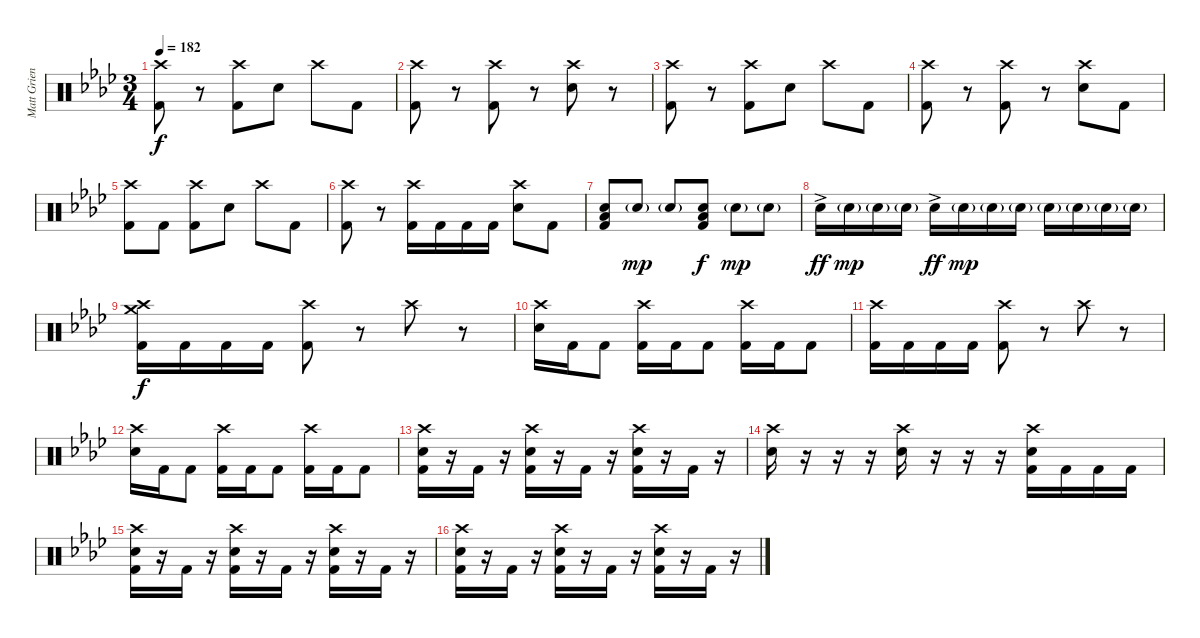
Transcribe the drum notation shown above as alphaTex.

\track ("Matt Griener [Drum Kit]" "Matt Grien") {instrument percussion}
\staff {score}
\articulation defaults
\ts (3 4)
\tempo 182
\clef neutral
\ks fminor
("Crash high (hit)" "Kick (hit) 2").8{dy f} r.8 ("Crash high (hit)" "Kick (hit) 2").8 "Electric Snare (hit)".8 "Crash high (hit)".8 "Kick (hit) 2".8 |
("Crash high (hit)" "Kick (hit) 2").8 r.8 ("Crash high (hit)" "Kick (hit) 2").8 r.8 ("Crash high (hit)" "Electric Snare (hit)").8 r.8 |
("Crash high (hit)" "Kick (hit) 2").8 r.8 ("Crash high (hit)" "Kick (hit) 2").8 "Electric Snare (hit)".8 "Crash high (hit)".8 "Kick (hit) 2".8 |
("Crash high (hit)" "Kick (hit) 2").8 r.8 ("Crash high (hit)" "Kick (hit) 2").8 r.8 ("Crash high (hit)" "Electric Snare (hit)").8 "Kick (hit) 2".8 |
("Crash high (hit)" "Kick (hit) 2").8 "Kick (hit) 2".8 ("Crash high (hit)" "Kick (hit) 2").8 "Electric Snare (hit)".8 "Crash high (hit)".8 "Kick (hit) 2".8 |
("Crash high (hit)" "Kick (hit) 2").8 r.8 ("Crash high (hit)" "Kick (hit) 2").16 "Kick (hit) 2".16 "Kick (hit) 2".16 "Kick (hit) 2".16 ("Crash high (hit)" "Electric Snare (hit)").8 "Kick (hit) 2".8 |
("Electric Snare (hit)" "Low Floor Tom (hit)" "Kick (hit) 2").8 "Electric Snare (hit)"{g}.8{dy mp} "Electric Snare (hit)"{g}.8 ("Electric Snare (hit)" "Low Floor Tom (hit)" "Kick (hit) 2").8{dy f} "Electric Snare (hit)"{g}.8{dy mp} "Electric Snare (hit)"{g}.8 |
"Electric Snare (hit)"{ac}.16{dy ff} "Electric Snare (hit)"{g}.16{dy mp} "Electric Snare (hit)"{g}.16 "Electric Snare (hit)"{g}.16 "Electric Snare (hit)"{ac}.16{dy ff} "Electric Snare (hit)"{g}.16{dy mp} "Electric Snare (hit)"{g}.16 "Electric Snare (hit)"{g}.16 "Electric Snare (hit)"{g}.16 "Electric Snare (hit)"{g}.16 "Electric Snare (hit)"{g}.16 "Electric Snare (hit)"{g}.16 |
("Crash high (hit)" "Crash medium (hit)" "Kick (hit) 2").16{dy f} "Kick (hit) 2".16 "Kick (hit) 2".16 "Kick (hit) 2".16 ("Crash high (hit)" "Kick (hit) 2").8 r.8 "Crash high (hit)".8 r.8 |
("Crash high (hit)" "Electric Snare (hit)").16 "Kick (hit) 2".16 "Kick (hit) 2".8 ("Crash high (hit)" "Kick (hit) 2").16 "Kick (hit) 2".16 "Kick (hit) 2".8 ("Crash high (hit)" "Kick (hit) 2").16 "Kick (hit) 2".16 "Kick (hit) 2".8 |
("Crash high (hit)" "Kick (hit) 2").16 "Kick (hit) 2".16 "Kick (hit) 2".16 "Kick (hit) 2".16 ("Crash high (hit)" "Kick (hit) 2").8 r.8 "Crash high (hit)".8 r.8 |
("Crash high (hit)" "Electric Snare (hit)").16 "Kick (hit) 2".16 "Kick (hit) 2".8 ("Crash high (hit)" "Kick (hit) 2").16 "Kick (hit) 2".16 "Kick (hit) 2".8 ("Crash high (hit)" "Kick (hit) 2").16 "Kick (hit) 2".16 "Kick (hit) 2".8 |
("Crash high (hit)" "Electric Snare (hit)" "Kick (hit) 2").16 r.16 "Kick (hit) 2".16 r.16 ("Crash high (hit)" "Electric Snare (hit)" "Kick (hit) 2").16 r.16 "Kick (hit) 2".16 r.16 ("Crash high (hit)" "Electric Snare (hit)" "Kick (hit) 2").16 r.16 "Kick (hit) 2".16 r.16 |
("Crash high (hit)" "Electric Snare (hit)").16 r.16 r.16 r.16 ("Crash high (hit)" "Electric Snare (hit)").16 r.16 r.16 r.16 ("Crash high (hit)" "Electric Snare (hit)" "Kick (hit) 2").16 "Kick (hit) 2".16 "Kick (hit) 2".16 "Kick (hit) 2".16 |
("Crash high (hit)" "Electric Snare (hit)" "Kick (hit) 2").16 r.16 "Kick (hit) 2".16 r.16 ("Crash high (hit)" "Electric Snare (hit)" "Kick (hit) 2").16 r.16 "Kick (hit) 2".16 r.16 ("Crash high (hit)" "Electric Snare (hit)" "Kick (hit) 2").16 r.16 "Kick (hit) 2".16 r.16 |
("Crash high (hit)" "Electric Snare (hit)" "Kick (hit) 2").16 r.16 "Kick (hit) 2".16 r.16 ("Crash high (hit)" "Electric Snare (hit)" "Kick (hit) 2").16 r.16 "Kick (hit) 2".16 r.16 ("Crash high (hit)" "Electric Snare (hit)" "Kick (hit) 2").16 r.16 "Kick (hit) 2".16 r.16
